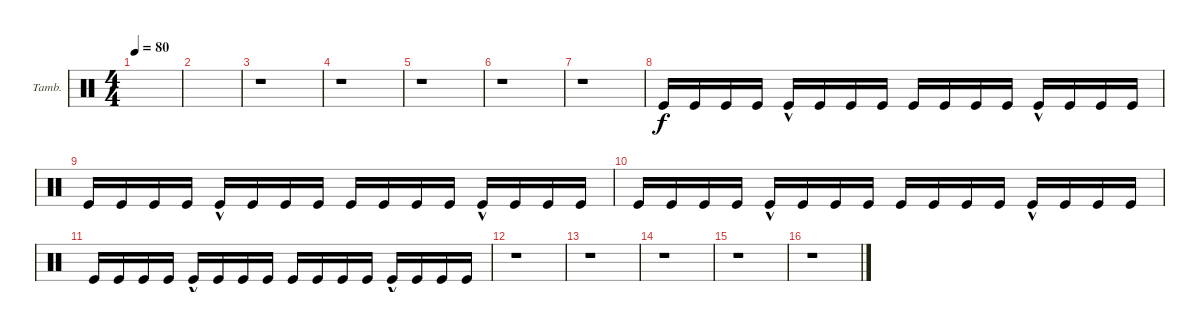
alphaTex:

\bracketExtendMode groupsimilarinstruments
\firstSystemTrackNameOrientation horizontal
\otherSystemsTrackNameOrientation horizontal
\track ("Tambourine" "Tamb.") {instrument percussion}
\staff {score}
\articulation defaults
\ts (4 4)
\tempo 80
\clef neutral
\ks c
|
|
r.1 |
r.1 |
r.1 |
r.1 |
r.1 |
"Kick (hit)".16 "Kick (hit)".16 "Kick (hit)".16 "Kick (hit)".16 "Kick (hit)"{hac}.16 "Kick (hit)".16 "Kick (hit)".16 "Kick (hit)".16 "Kick (hit)".16 "Kick (hit)".16 "Kick (hit)".16 "Kick (hit)".16 "Kick (hit)"{hac}.16 "Kick (hit)".16 "Kick (hit)".16 "Kick (hit)".16 |
"Kick (hit)".16 "Kick (hit)".16 "Kick (hit)".16 "Kick (hit)".16 "Kick (hit)"{hac}.16 "Kick (hit)".16 "Kick (hit)".16 "Kick (hit)".16 "Kick (hit)".16 "Kick (hit)".16 "Kick (hit)".16 "Kick (hit)".16 "Kick (hit)"{hac}.16 "Kick (hit)".16 "Kick (hit)".16 "Kick (hit)".16 |
"Kick (hit)".16 "Kick (hit)".16 "Kick (hit)".16 "Kick (hit)".16 "Kick (hit)"{hac}.16 "Kick (hit)".16 "Kick (hit)".16 "Kick (hit)".16 "Kick (hit)".16 "Kick (hit)".16 "Kick (hit)".16 "Kick (hit)".16 "Kick (hit)"{hac}.16 "Kick (hit)".16 "Kick (hit)".16 "Kick (hit)".16 |
"Kick (hit)".16 "Kick (hit)".16 "Kick (hit)".16 "Kick (hit)".16 "Kick (hit)"{hac}.16 "Kick (hit)".16 "Kick (hit)".16 "Kick (hit)".16 "Kick (hit)".16 "Kick (hit)".16 "Kick (hit)".16 "Kick (hit)".16 "Kick (hit)"{hac}.16 "Kick (hit)".16 "Kick (hit)".16 "Kick (hit)".16 |
r.1 |
r.1 |
r.1 |
r.1 |
r.1
